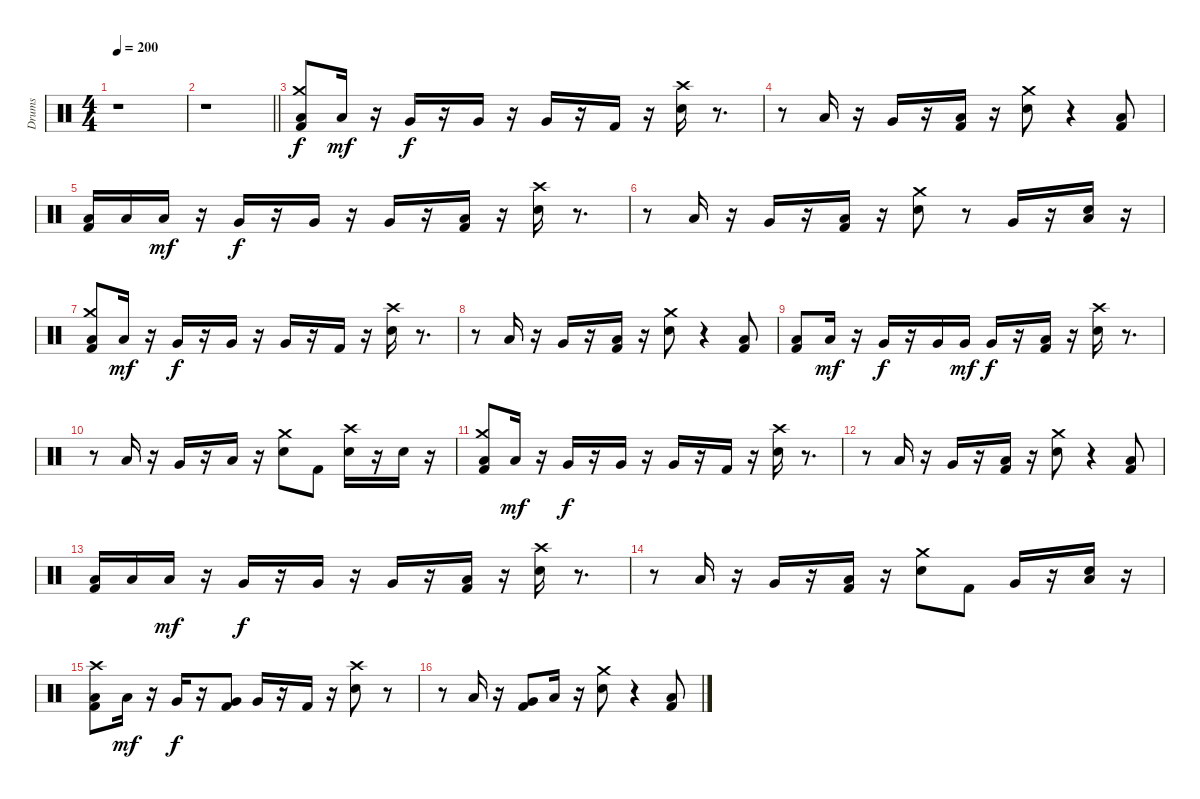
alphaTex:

\track ("Drums" "Drums") {instrument percussion}
\staff {score}
\articulation defaults
\ts (4 4)
\tempo 200
\clef neutral
\ks c
r.1{dy f} |
\barLineRight lightlight
r.1 |
\section ("" " ")
("Kick (hit) 2" "Crash medium (hit)" "Low Tom (hit)").8 "Low Tom (hit)".16{dy mf} r.16 "Very Low Tom (hit)".16{dy f} r.16 "Very Low Tom (hit)".16 r.16 "Very Low Tom (hit)".16 r.16 "Kick (hit) 2".16 r.16 ("Snare (hit) 2" "Crash high (hit)").16 r.8{d} |
r.8 "Low Tom (hit)".16 r.16 "Very Low Tom (hit)".16 r.16 ("Kick (hit) 2" "Low Floor Tom (hit)").16 r.16 ("Snare (hit) 2" "Crash medium (hit)").8 r.4 ("Kick (hit) 2" "Low Floor Tom (hit)").8 |
("Kick (hit) 2" "Low Tom (hit)").16 "Low Tom (hit)".16 "Low Tom (hit)".16{dy mf} r.16 "Very Low Tom (hit)".16{dy f} r.16 "Very Low Tom (hit)".16 r.16 "Very Low Tom (hit)".16 r.16 ("Kick (hit) 2" "Low Floor Tom (hit)").16 r.16 ("Snare (hit) 2" "Crash high (hit)").16 r.8{d} |
r.8 "Low Tom (hit)".16 r.16 "Very Low Tom (hit)".16 r.16 ("Kick (hit) 2" "Low Floor Tom (hit)").16 r.16 ("Snare (hit) 2" "Crash medium (hit)").8 r.8 "Very Low Tom (hit)".16 r.16 ("Snare (hit) 2" "Low Floor Tom (hit)").16 r.16 |
("Kick (hit) 2" "Crash medium (hit)" "Low Tom (hit)").8 "Low Tom (hit)".16{dy mf} r.16 "Very Low Tom (hit)".16{dy f} r.16 "Very Low Tom (hit)".16 r.16 "Very Low Tom (hit)".16 r.16 "Kick (hit) 2".16 r.16 ("Snare (hit) 2" "Crash high (hit)").16 r.8{d} |
r.8 "Low Tom (hit)".16 r.16 "Very Low Tom (hit)".16 r.16 ("Kick (hit) 2" "Low Floor Tom (hit)").16 r.16 ("Snare (hit) 2" "Crash medium (hit)").8 r.4 ("Kick (hit) 2" "Low Floor Tom (hit)").8 |
("Kick (hit) 2" "Low Tom (hit)").8 "Low Tom (hit)".16{dy mf} r.16 "Very Low Tom (hit)".16{dy f} r.16 "Very Low Tom (hit)".16 "Very Low Tom (hit)".16{dy mf} "Very Low Tom (hit)".16{dy f} r.16 ("Kick (hit) 2" "Low Floor Tom (hit)").16 r.16 ("Snare (hit) 2" "Crash high (hit)").16 r.8{d} |
r.8 "Low Tom (hit)".16 r.16 "Very Low Tom (hit)".16 r.16 "Low Floor Tom (hit)".16 r.16 ("Snare (hit) 2" "Crash medium (hit)").8 "Kick (hit) 2".8 ("Snare (hit) 2" "Crash high (hit)").16 r.16 "Snare (hit) 2".16 r.16 |
("Kick (hit) 2" "Crash medium (hit)" "Low Tom (hit)").8 "Low Tom (hit)".16{dy mf} r.16 "Very Low Tom (hit)".16{dy f} r.16 "Very Low Tom (hit)".16 r.16 "Very Low Tom (hit)".16 r.16 "Kick (hit) 2".16 r.16 ("Snare (hit) 2" "Crash high (hit)").16 r.8{d} |
r.8 "Low Tom (hit)".16 r.16 "Very Low Tom (hit)".16 r.16 ("Kick (hit) 2" "Low Floor Tom (hit)").16 r.16 ("Snare (hit) 2" "Crash medium (hit)").8 r.4 ("Kick (hit) 2" "Low Floor Tom (hit)").8 |
("Kick (hit) 2" "Low Tom (hit)").16 "Low Tom (hit)".16 "Low Tom (hit)".16{dy mf} r.16 "Very Low Tom (hit)".16{dy f} r.16 "Very Low Tom (hit)".16 r.16 "Very Low Tom (hit)".16 r.16 ("Kick (hit) 2" "Low Floor Tom (hit)").16 r.16 ("Snare (hit) 2" "Crash high (hit)").16 r.8{d} |
r.8 "Low Tom (hit)".16 r.16 "Very Low Tom (hit)".16 r.16 ("Kick (hit) 2" "Low Floor Tom (hit)").16 r.16 ("Snare (hit) 2" "Crash medium (hit)").8 "Kick (hit) 2".8 "Very Low Tom (hit)".16 r.16 ("Snare (hit) 2" "Low Floor Tom (hit)").16 r.16 |
("Kick (hit) 2" "Crash high (hit)" "Low Tom (hit)").8 "Low Tom (hit)".16{dy mf} r.16 "Very Low Tom (hit)".16{dy f} r.16 ("Kick (hit) 2" "Very Low Tom (hit)").8 "Very Low Tom (hit)".16 r.16 "Kick (hit) 2".16 r.16 ("Snare (hit) 2" "Crash high (hit)").8 r.8 |
r.8 "Low Tom (hit)".16 r.16 ("Kick (hit) 2" "Very Low Tom (hit)").8 "Low Floor Tom (hit)".16 r.16 ("Snare (hit) 2" "Crash medium (hit)").8 r.4 ("Kick (hit) 2" "Low Floor Tom (hit)").8
